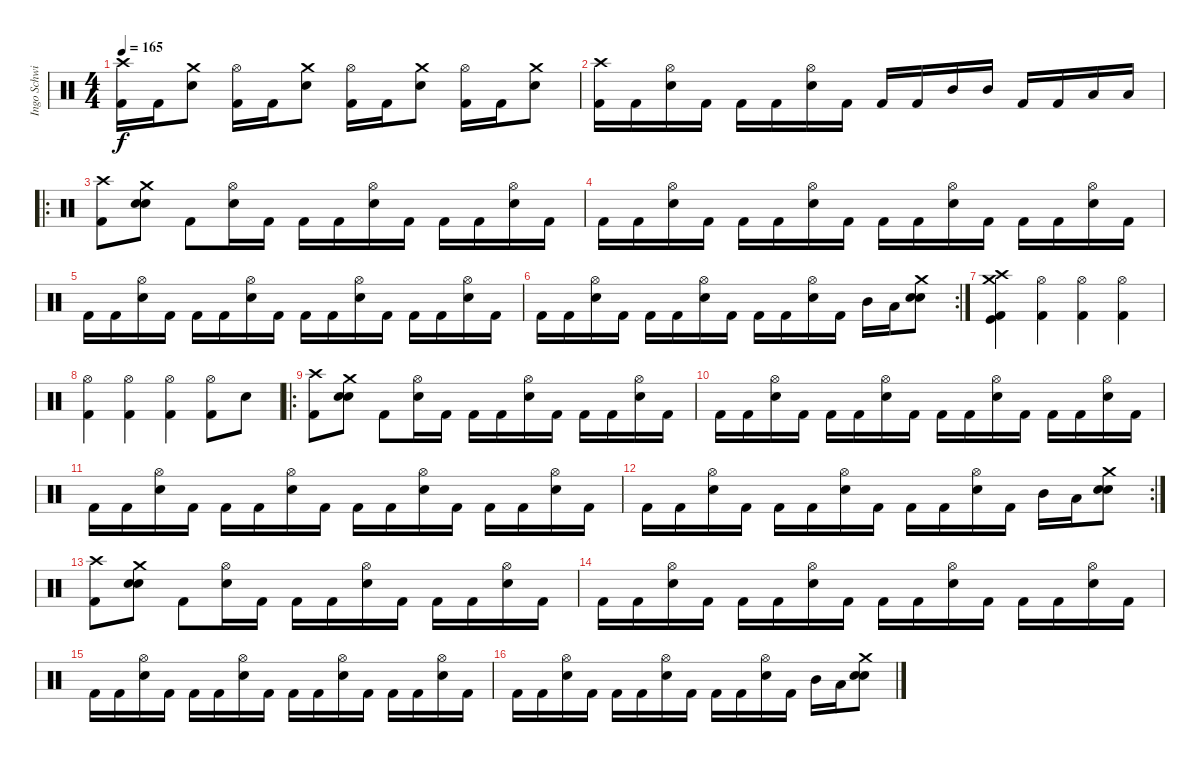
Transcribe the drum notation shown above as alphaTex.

\track ("Ingo Schwischtenberg" "Ingo Schwi") {instrument percussion}
\staff {score}
\articulation defaults
\ts (4 4)
\tempo 165
\clef neutral
\ks c
("Crash high (hit)" "Kick (hit) 2").16{dy f} "Kick (hit) 2".16 ("Crash medium (hit)" "Snare (hit) 2").8 ("Hi-Hat (open)" "Kick (hit) 2").16 "Kick (hit) 2".16 ("Crash medium (hit)" "Snare (hit) 2").8 ("Hi-Hat (open)" "Kick (hit) 2").16 "Kick (hit) 2".16 ("Crash medium (hit)" "Snare (hit) 2").8 ("Hi-Hat (open)" "Kick (hit) 2").16 "Kick (hit) 2".16 ("Crash medium (hit)" "Snare (hit) 2").8 |
("Crash high (hit)" "Kick (hit) 2").16 "Kick (hit) 2".16 ("Hi-Hat (open)" "Snare (hit) 2").16 "Kick (hit) 2".16 "Kick (hit) 2".16 "Kick (hit) 2".16 ("Hi-Hat (open)" "Snare (hit) 2").16 "Kick (hit) 2".16 "Kick (hit) 2".16 "Kick (hit) 2".16 "Mid Tom (hit)".16 "Mid Tom (hit)".16 "Kick (hit) 2".16 "Kick (hit) 2".16 "Low Tom (hit)".16 "Low Tom (hit)".16 |
\ro
("Crash high (hit)" "Kick (hit) 2").8 ("Crash medium (hit)" "Snare (hit) 2" "Electric Snare (hit)").8 "Kick (hit) 2".8 ("Hi-Hat (open)" "Snare (hit) 2").16 "Kick (hit) 2".16 "Kick (hit) 2".16 "Kick (hit) 2".16 ("Hi-Hat (open)" "Snare (hit) 2").16 "Kick (hit) 2".16 "Kick (hit) 2".16 "Kick (hit) 2".16 ("Hi-Hat (open)" "Snare (hit) 2").16 "Kick (hit) 2".16 |
"Kick (hit) 2".16 "Kick (hit) 2".16 ("Hi-Hat (open)" "Snare (hit) 2").16 "Kick (hit) 2".16 "Kick (hit) 2".16 "Kick (hit) 2".16 ("Hi-Hat (open)" "Snare (hit) 2").16 "Kick (hit) 2".16 "Kick (hit) 2".16 "Kick (hit) 2".16 ("Hi-Hat (open)" "Snare (hit) 2").16 "Kick (hit) 2".16 "Kick (hit) 2".16 "Kick (hit) 2".16 ("Hi-Hat (open)" "Snare (hit) 2").16 "Kick (hit) 2".16 |
"Kick (hit) 2".16 "Kick (hit) 2".16 ("Hi-Hat (open)" "Snare (hit) 2").16 "Kick (hit) 2".16 "Kick (hit) 2".16 "Kick (hit) 2".16 ("Hi-Hat (open)" "Snare (hit) 2").16 "Kick (hit) 2".16 "Kick (hit) 2".16 "Kick (hit) 2".16 ("Hi-Hat (open)" "Snare (hit) 2").16 "Kick (hit) 2".16 "Kick (hit) 2".16 "Kick (hit) 2".16 ("Hi-Hat (open)" "Snare (hit) 2").16 "Kick (hit) 2".16 |
\rc 2 "Kick (hit) 2".16 "Kick (hit) 2".16
("Hi-Hat (open)" "Snare (hit) 2").16 "Kick (hit) 2".16 "Kick (hit) 2".16 "Kick (hit) 2".16 ("Hi-Hat (open)" "Snare (hit) 2").16 "Kick (hit) 2".16 "Kick (hit) 2".16 "Kick (hit) 2".16 ("Hi-Hat (open)" "Snare (hit) 2").16 "Kick (hit) 2".16 "Mid Tom (hit)".16 "Low Tom (hit)".16 ("Crash medium (hit)" "Snare (hit) 2" "Electric Snare (hit)").8 |
("Crash high (hit)" "Crash medium (hit)" "Kick (hit)" "Kick (hit) 2").4 ("Hi-Hat (open)" "Kick (hit) 2").4 ("Hi-Hat (open)" "Kick (hit) 2").4 ("Hi-Hat (open)" "Kick (hit) 2").4 |
("Hi-Hat (open)" "Kick (hit) 2").4 ("Hi-Hat (open)" "Kick (hit) 2").4 ("Hi-Hat (open)" "Kick (hit) 2").4 ("Hi-Hat (open)" "Kick (hit) 2").8 "Electric Snare (hit)".8 |
\ro
("Crash high (hit)" "Kick (hit) 2").8 ("Crash medium (hit)" "Snare (hit) 2" "Electric Snare (hit)").8 "Kick (hit) 2".8 ("Hi-Hat (open)" "Snare (hit) 2").16 "Kick (hit) 2".16 "Kick (hit) 2".16 "Kick (hit) 2".16 ("Hi-Hat (open)" "Snare (hit) 2").16 "Kick (hit) 2".16 "Kick (hit) 2".16 "Kick (hit) 2".16 ("Hi-Hat (open)" "Snare (hit) 2").16 "Kick (hit) 2".16 |
"Kick (hit) 2".16 "Kick (hit) 2".16 ("Hi-Hat (open)" "Snare (hit) 2").16 "Kick (hit) 2".16 "Kick (hit) 2".16 "Kick (hit) 2".16 ("Hi-Hat (open)" "Snare (hit) 2").16 "Kick (hit) 2".16 "Kick (hit) 2".16 "Kick (hit) 2".16 ("Hi-Hat (open)" "Snare (hit) 2").16 "Kick (hit) 2".16 "Kick (hit) 2".16 "Kick (hit) 2".16 ("Hi-Hat (open)" "Snare (hit) 2").16 "Kick (hit) 2".16 |
"Kick (hit) 2".16 "Kick (hit) 2".16 ("Hi-Hat (open)" "Snare (hit) 2").16 "Kick (hit) 2".16 "Kick (hit) 2".16 "Kick (hit) 2".16 ("Hi-Hat (open)" "Snare (hit) 2").16 "Kick (hit) 2".16 "Kick (hit) 2".16 "Kick (hit) 2".16 ("Hi-Hat (open)" "Snare (hit) 2").16 "Kick (hit) 2".16 "Kick (hit) 2".16 "Kick (hit) 2".16 ("Hi-Hat (open)" "Snare (hit) 2").16 "Kick (hit) 2".16 |
\rc 2 "Kick (hit) 2".16 "Kick (hit) 2".16
("Hi-Hat (open)" "Snare (hit) 2").16 "Kick (hit) 2".16 "Kick (hit) 2".16 "Kick (hit) 2".16 ("Hi-Hat (open)" "Snare (hit) 2").16 "Kick (hit) 2".16 "Kick (hit) 2".16 "Kick (hit) 2".16 ("Hi-Hat (open)" "Snare (hit) 2").16 "Kick (hit) 2".16 "Mid Tom (hit)".16 "Low Tom (hit)".16 ("Crash medium (hit)" "Snare (hit) 2" "Electric Snare (hit)").8 |
("Crash high (hit)" "Kick (hit) 2").8 ("Crash medium (hit)" "Snare (hit) 2" "Electric Snare (hit)").8 "Kick (hit) 2".8 ("Hi-Hat (open)" "Snare (hit) 2").16 "Kick (hit) 2".16 "Kick (hit) 2".16 "Kick (hit) 2".16 ("Hi-Hat (open)" "Snare (hit) 2").16 "Kick (hit) 2".16 "Kick (hit) 2".16 "Kick (hit) 2".16 ("Hi-Hat (open)" "Snare (hit) 2").16 "Kick (hit) 2".16 |
"Kick (hit) 2".16 "Kick (hit) 2".16 ("Hi-Hat (open)" "Snare (hit) 2").16 "Kick (hit) 2".16 "Kick (hit) 2".16 "Kick (hit) 2".16 ("Hi-Hat (open)" "Snare (hit) 2").16 "Kick (hit) 2".16 "Kick (hit) 2".16 "Kick (hit) 2".16 ("Hi-Hat (open)" "Snare (hit) 2").16 "Kick (hit) 2".16 "Kick (hit) 2".16 "Kick (hit) 2".16 ("Hi-Hat (open)" "Snare (hit) 2").16 "Kick (hit) 2".16 |
"Kick (hit) 2".16 "Kick (hit) 2".16 ("Hi-Hat (open)" "Snare (hit) 2").16 "Kick (hit) 2".16 "Kick (hit) 2".16 "Kick (hit) 2".16 ("Hi-Hat (open)" "Snare (hit) 2").16 "Kick (hit) 2".16 "Kick (hit) 2".16 "Kick (hit) 2".16 ("Hi-Hat (open)" "Snare (hit) 2").16 "Kick (hit) 2".16 "Kick (hit) 2".16 "Kick (hit) 2".16 ("Hi-Hat (open)" "Snare (hit) 2").16 "Kick (hit) 2".16 |
"Kick (hit) 2".16 "Kick (hit) 2".16 ("Hi-Hat (open)" "Snare (hit) 2").16 "Kick (hit) 2".16 "Kick (hit) 2".16 "Kick (hit) 2".16 ("Hi-Hat (open)" "Snare (hit) 2").16 "Kick (hit) 2".16 "Kick (hit) 2".16 "Kick (hit) 2".16 ("Hi-Hat (open)" "Snare (hit) 2").16 "Kick (hit) 2".16 "Mid Tom (hit)".16 "Low Tom (hit)".16 ("Crash medium (hit)" "Snare (hit) 2" "Electric Snare (hit)").8
